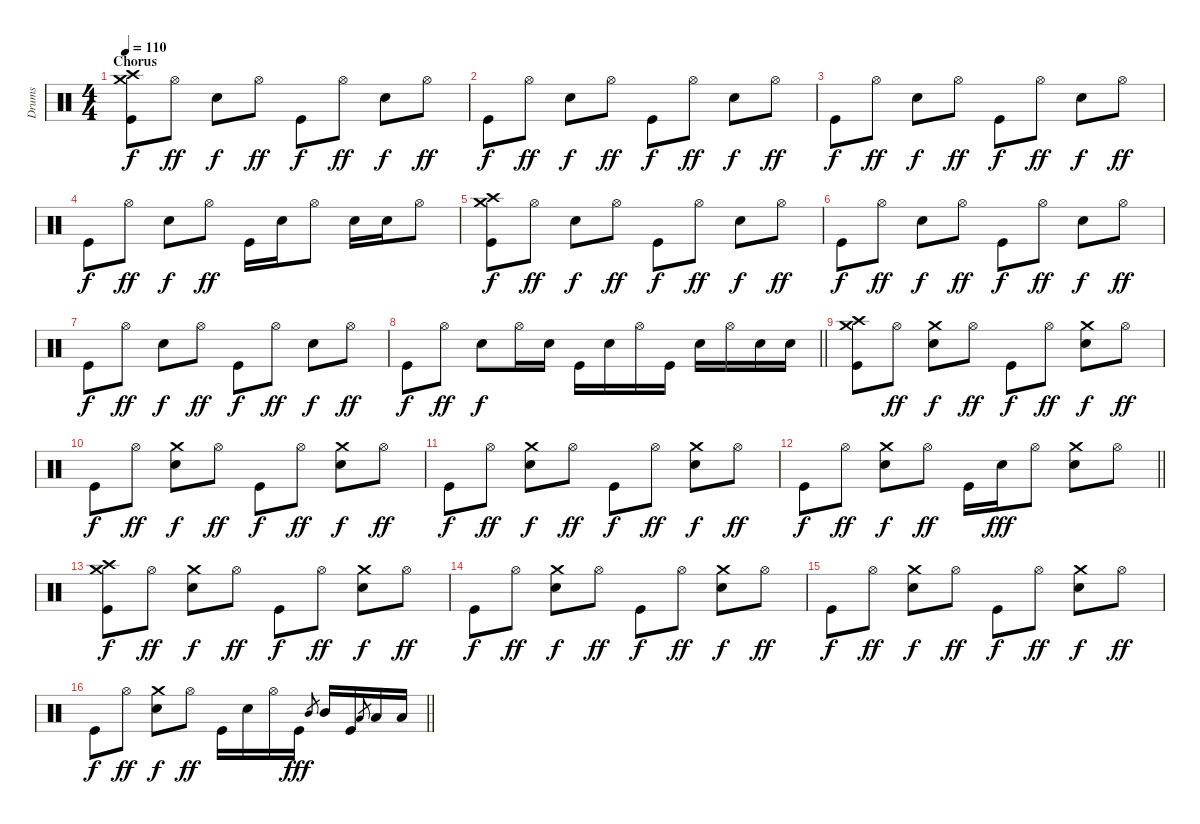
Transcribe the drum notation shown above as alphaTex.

\track ("Drums" "Drums") {instrument percussion}
\staff {score}
\articulation defaults
\ts (4 4)
\section ("" "Chorus")
\tempo 110
\clef neutral
\ks c
("Crash high (hit)" "Crash medium (hit)" "Kick (hit)").8{dy f} "Hi-Hat (open)".8{dy ff} "Snare (hit) 2".8{dy f} "Hi-Hat (open)".8{dy ff} "Kick (hit)".8{dy f} "Hi-Hat (open)".8{dy ff} "Snare (hit) 2".8{dy f} "Hi-Hat (open)".8{dy ff} |
"Kick (hit)".8{dy f} "Hi-Hat (open)".8{dy ff} "Snare (hit) 2".8{dy f} "Hi-Hat (open)".8{dy ff} "Kick (hit)".8{dy f} "Hi-Hat (open)".8{dy ff} "Snare (hit) 2".8{dy f} "Hi-Hat (open)".8{dy ff} |
"Kick (hit)".8{dy f} "Hi-Hat (open)".8{dy ff} "Snare (hit) 2".8{dy f} "Hi-Hat (open)".8{dy ff} "Kick (hit)".8{dy f} "Hi-Hat (open)".8{dy ff} "Snare (hit) 2".8{dy f} "Hi-Hat (open)".8{dy ff} |
"Kick (hit)".8{dy f} "Hi-Hat (open)".8{dy ff} "Snare (hit) 2".8{dy f} "Hi-Hat (open)".8{dy ff} "Kick (hit)".16 "Snare (hit) 2".16 "Hi-Hat (open)".8 "Snare (hit) 2".16 "Snare (hit) 2".16 "Hi-Hat (open)".8 |
("Crash high (hit)" "Crash medium (hit)" "Kick (hit)").8{dy f} "Hi-Hat (open)".8{dy ff} "Snare (hit) 2".8{dy f} "Hi-Hat (open)".8{dy ff} "Kick (hit)".8{dy f} "Hi-Hat (open)".8{dy ff} "Snare (hit) 2".8{dy f} "Hi-Hat (open)".8{dy ff} |
"Kick (hit)".8{dy f} "Hi-Hat (open)".8{dy ff} "Snare (hit) 2".8{dy f} "Hi-Hat (open)".8{dy ff} "Kick (hit)".8{dy f} "Hi-Hat (open)".8{dy ff} "Snare (hit) 2".8{dy f} "Hi-Hat (open)".8{dy ff} |
"Kick (hit)".8{dy f} "Hi-Hat (open)".8{dy ff} "Snare (hit) 2".8{dy f} "Hi-Hat (open)".8{dy ff} "Kick (hit)".8{dy f} "Hi-Hat (open)".8{dy ff} "Snare (hit) 2".8{dy f} "Hi-Hat (open)".8{dy ff} |
\barLineRight lightlight "Kick (hit)".8{dy f} "Hi-Hat (open)".8{dy ff} "Snare (hit) 2".8{dy f} "Hi-Hat (open)".16 "Snare (hit) 2".16 "Kick (hit)".16 "Snare (hit) 2".16 "Hi-Hat (open)".16 "Kick (hit)".16 "Snare (hit) 2".16 "Hi-Hat (open)".16 "Snare (hit) 2".16 "Snare (hit) 2".16
|
("Crash high (hit)" "Crash medium (hit)" "Kick (hit)").8 "Hi-Hat (open)".8{dy ff} ("Crash medium (hit)" "Snare (hit) 2").8{dy f} "Hi-Hat (open)".8{dy ff} "Kick (hit)".8{dy f} "Hi-Hat (open)".8{dy ff} ("Crash medium (hit)" "Snare (hit) 2").8{dy f} "Hi-Hat (open)".8{dy ff} |
"Kick (hit)".8{dy f} "Hi-Hat (open)".8{dy ff} ("Crash medium (hit)" "Snare (hit) 2").8{dy f} "Hi-Hat (open)".8{dy ff} "Kick (hit)".8{dy f} "Hi-Hat (open)".8{dy ff} ("Crash medium (hit)" "Snare (hit) 2").8{dy f} "Hi-Hat (open)".8{dy ff} |
"Kick (hit)".8{dy f} "Hi-Hat (open)".8{dy ff} ("Crash medium (hit)" "Snare (hit) 2").8{dy f} "Hi-Hat (open)".8{dy ff} "Kick (hit)".8{dy f} "Hi-Hat (open)".8{dy ff} ("Crash medium (hit)" "Snare (hit) 2").8{dy f} "Hi-Hat (open)".8{dy ff} |
\barLineRight lightlight "Kick (hit)".8{dy f} "Hi-Hat (open)".8{dy ff}
("Crash medium (hit)" "Snare (hit) 2").8{dy f} "Hi-Hat (open)".8{dy ff} "Kick (hit)".16 "Snare (hit) 2".16{dy fff} "Hi-Hat (open)".8 ("Crash medium (hit)" "Snare (hit) 2").8 "Hi-Hat (open)".8 |
("Crash high (hit)" "Crash medium (hit)" "Kick (hit)").8{dy f} "Hi-Hat (open)".8{dy ff} ("Crash medium (hit)" "Snare (hit) 2").8{dy f} "Hi-Hat (open)".8{dy ff} "Kick (hit)".8{dy f} "Hi-Hat (open)".8{dy ff} ("Crash medium (hit)" "Snare (hit) 2").8{dy f} "Hi-Hat (open)".8{dy ff} |
"Kick (hit)".8{dy f} "Hi-Hat (open)".8{dy ff} ("Crash medium (hit)" "Snare (hit) 2").8{dy f} "Hi-Hat (open)".8{dy ff} "Kick (hit)".8{dy f} "Hi-Hat (open)".8{dy ff} ("Crash medium (hit)" "Snare (hit) 2").8{dy f} "Hi-Hat (open)".8{dy ff} |
"Kick (hit)".8{dy f} "Hi-Hat (open)".8{dy ff} ("Crash medium (hit)" "Snare (hit) 2").8{dy f} "Hi-Hat (open)".8{dy ff} "Kick (hit)".8{dy f} "Hi-Hat (open)".8{dy ff} ("Crash medium (hit)" "Snare (hit) 2").8{dy f} "Hi-Hat (open)".8{dy ff} |
\barLineRight lightlight "Kick (hit)".8{dy f} "Hi-Hat (open)".8{dy ff}
("Crash medium (hit)" "Snare (hit) 2").8{dy f} "Hi-Hat (open)".8{dy ff} "Kick (hit)".16 "Snare (hit) 2".16 "Hi-Hat (open)".16 "Kick (hit)".16{dy fff} "Mid Tom (hit)".8{gr} "Mid Tom (hit)".16 "Kick (hit)".16 "Low Tom (hit)".8{gr} "Low Tom (hit)".16 "Low Tom (hit)".16
